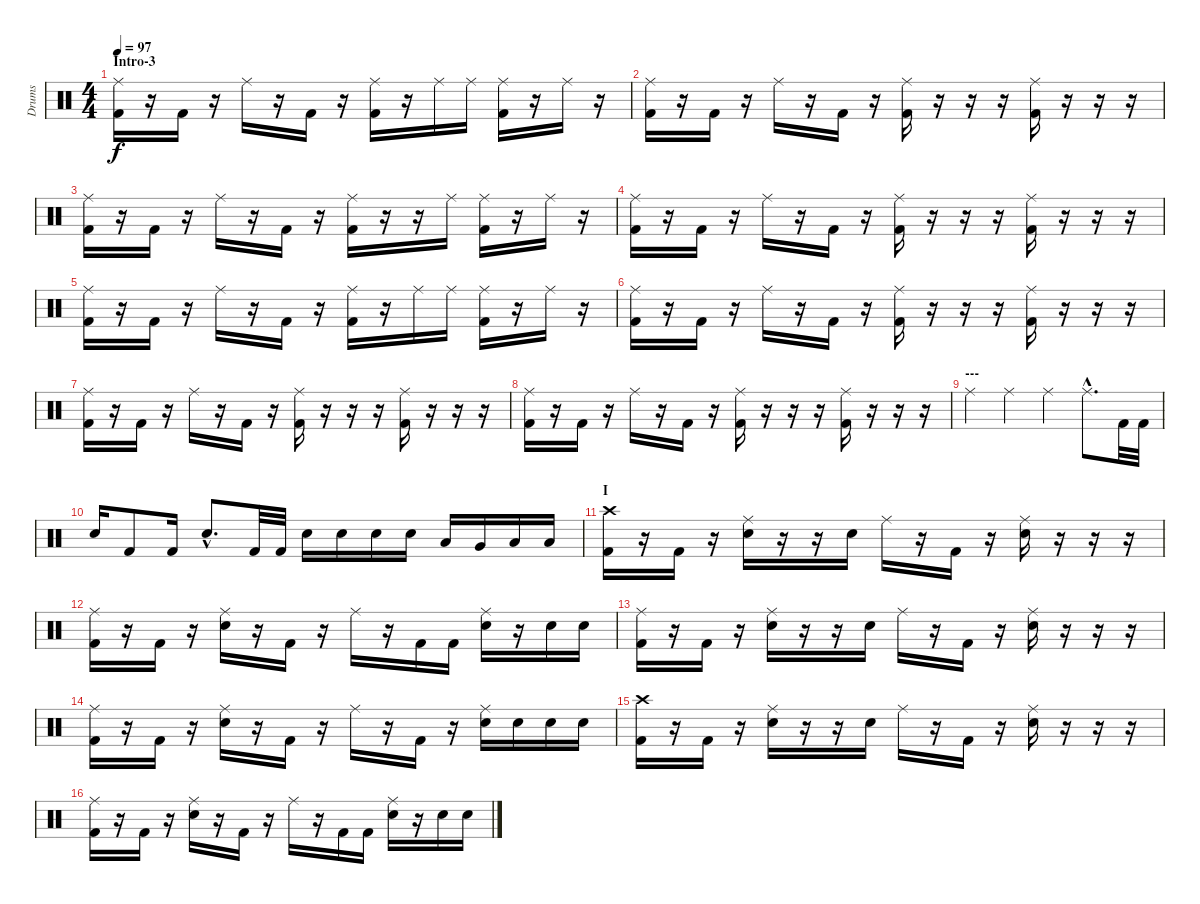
\track ("Drums" "Drums") {instrument percussion}
\staff {score}
\articulation defaults
\ts (4 4)
\section ("" "Intro-3")
\tempo 97
\clef neutral
\ks c
("Kick (hit) 2" "Ride (middle)").16{dy f} r.16 "Kick (hit) 2".16 r.16 "Ride (middle)".16 r.16 "Kick (hit) 2".16 r.16 ("Kick (hit) 2" "Ride (middle)").16 r.16 "Ride (middle)".16 "Ride (middle)".16 ("Kick (hit) 2" "Ride (middle)").16 r.16 "Ride (middle)".16 r.16 |
("Kick (hit) 2" "Ride (middle)").16 r.16 "Kick (hit) 2".16 r.16 "Ride (middle)".16 r.16 "Kick (hit) 2".16 r.16 ("Kick (hit) 2" "Ride (middle)").16 r.16 r.16 r.16 ("Kick (hit) 2" "Ride (middle)").16 r.16 r.16 r.16 |
("Kick (hit) 2" "Ride (middle)").16 r.16 "Kick (hit) 2".16 r.16 "Ride (middle)".16 r.16 "Kick (hit) 2".16 r.16 ("Kick (hit) 2" "Ride (middle)").16 r.16 r.16 "Ride (middle)".16 ("Kick (hit) 2" "Ride (middle)").16 r.16 "Ride (middle)".16 r.16 |
("Kick (hit) 2" "Ride (middle)").16 r.16 "Kick (hit) 2".16 r.16 "Ride (middle)".16 r.16 "Kick (hit) 2".16 r.16 ("Kick (hit) 2" "Ride (middle)").16 r.16 r.16 r.16 ("Kick (hit) 2" "Ride (middle)").16 r.16 r.16 r.16 |
("Kick (hit) 2" "Ride (middle)").16 r.16 "Kick (hit) 2".16 r.16 "Ride (middle)".16 r.16 "Kick (hit) 2".16 r.16 ("Kick (hit) 2" "Ride (middle)").16 r.16 "Ride (middle)".16 "Ride (middle)".16 ("Kick (hit) 2" "Ride (middle)").16 r.16 "Ride (middle)".16 r.16 |
("Kick (hit) 2" "Ride (middle)").16 r.16 "Kick (hit) 2".16 r.16 "Ride (middle)".16 r.16 "Kick (hit) 2".16 r.16 ("Kick (hit) 2" "Ride (middle)").16 r.16 r.16 r.16 ("Kick (hit) 2" "Ride (middle)").16 r.16 r.16 r.16 |
("Kick (hit) 2" "Ride (middle)").16 r.16 "Kick (hit) 2".16 r.16 "Ride (middle)".16 r.16 "Kick (hit) 2".16 r.16 ("Kick (hit) 2" "Ride (middle)").16 r.16 r.16 r.16 ("Kick (hit) 2" "Ride (middle)").16 r.16 r.16 r.16 |
("Kick (hit) 2" "Ride (middle)").16 r.16 "Kick (hit) 2".16 r.16 "Ride (middle)".16 r.16 "Kick (hit) 2".16 r.16 ("Kick (hit) 2" "Ride (middle)").16 r.16 r.16 r.16 ("Kick (hit) 2" "Ride (middle)").16 r.16 r.16 r.16 |
\section ("" "---")
"Ride (middle)".4 "Ride (middle)".4 "Ride (middle)".4 "Ride (middle)"{hac}.8{d} "Kick (hit) 2".32 "Kick (hit) 2".32 |
"Electric Snare (hit)".16 "Kick (hit) 2".8 "Kick (hit) 2".16 "Electric Snare (hit)"{hac}.8{d} "Kick (hit) 2".32 "Kick (hit) 2".32 "Electric Snare (hit)".16 "Electric Snare (hit)".16 "Electric Snare (hit)".16 "Electric Snare (hit)".16 "Low Tom (hit)".16 "Very Low Tom (hit)".16 "Low Floor Tom (hit)".16 "Low Floor Tom (hit)".16 |
\section ("" "I")
("Kick (hit) 2" "Crash high (hit)").16 r.16 "Kick (hit) 2".16 r.16 ("Electric Snare (hit)" "Ride (middle)").16 r.16 r.16 "Electric Snare (hit)".16 "Ride (middle)".16 r.16 "Kick (hit) 2".16 r.16 ("Electric Snare (hit)" "Ride (middle)").16 r.16 r.16 r.16 |
("Kick (hit) 2" "Ride (middle)").16 r.16 "Kick (hit) 2".16 r.16 ("Electric Snare (hit)" "Ride (middle)").16 r.16 "Kick (hit) 2".16 r.16 "Ride (middle)".16 r.16 "Kick (hit) 2".16 "Kick (hit) 2".16 ("Electric Snare (hit)" "Ride (middle)").16 r.16 "Electric Snare (hit)".16 "Electric Snare (hit)".16 |
("Kick (hit) 2" "Ride (middle)").16 r.16 "Kick (hit) 2".16 r.16 ("Electric Snare (hit)" "Ride (middle)").16 r.16 r.16 "Electric Snare (hit)".16 "Ride (middle)".16 r.16 "Kick (hit) 2".16 r.16 ("Electric Snare (hit)" "Ride (middle)").16 r.16 r.16 r.16 |
("Kick (hit) 2" "Ride (middle)").16 r.16 "Kick (hit) 2".16 r.16 ("Electric Snare (hit)" "Ride (middle)").16 r.16 "Kick (hit) 2".16 r.16 "Ride (middle)".16 r.16 "Kick (hit) 2".16 r.16 ("Electric Snare (hit)" "Ride (middle)").16 "Electric Snare (hit)".16 "Electric Snare (hit)".16 "Electric Snare (hit)".16 |
("Kick (hit) 2" "Crash high (hit)").16 r.16 "Kick (hit) 2".16 r.16 ("Electric Snare (hit)" "Ride (middle)").16 r.16 r.16 "Electric Snare (hit)".16 "Ride (middle)".16 r.16 "Kick (hit) 2".16 r.16 ("Electric Snare (hit)" "Ride (middle)").16 r.16 r.16 r.16 |
("Kick (hit) 2" "Ride (middle)").16 r.16 "Kick (hit) 2".16 r.16 ("Electric Snare (hit)" "Ride (middle)").16 r.16 "Kick (hit) 2".16 r.16 "Ride (middle)".16 r.16 "Kick (hit) 2".16 "Kick (hit) 2".16 ("Electric Snare (hit)" "Ride (middle)").16 r.16 "Electric Snare (hit)".16 "Electric Snare (hit)".16
